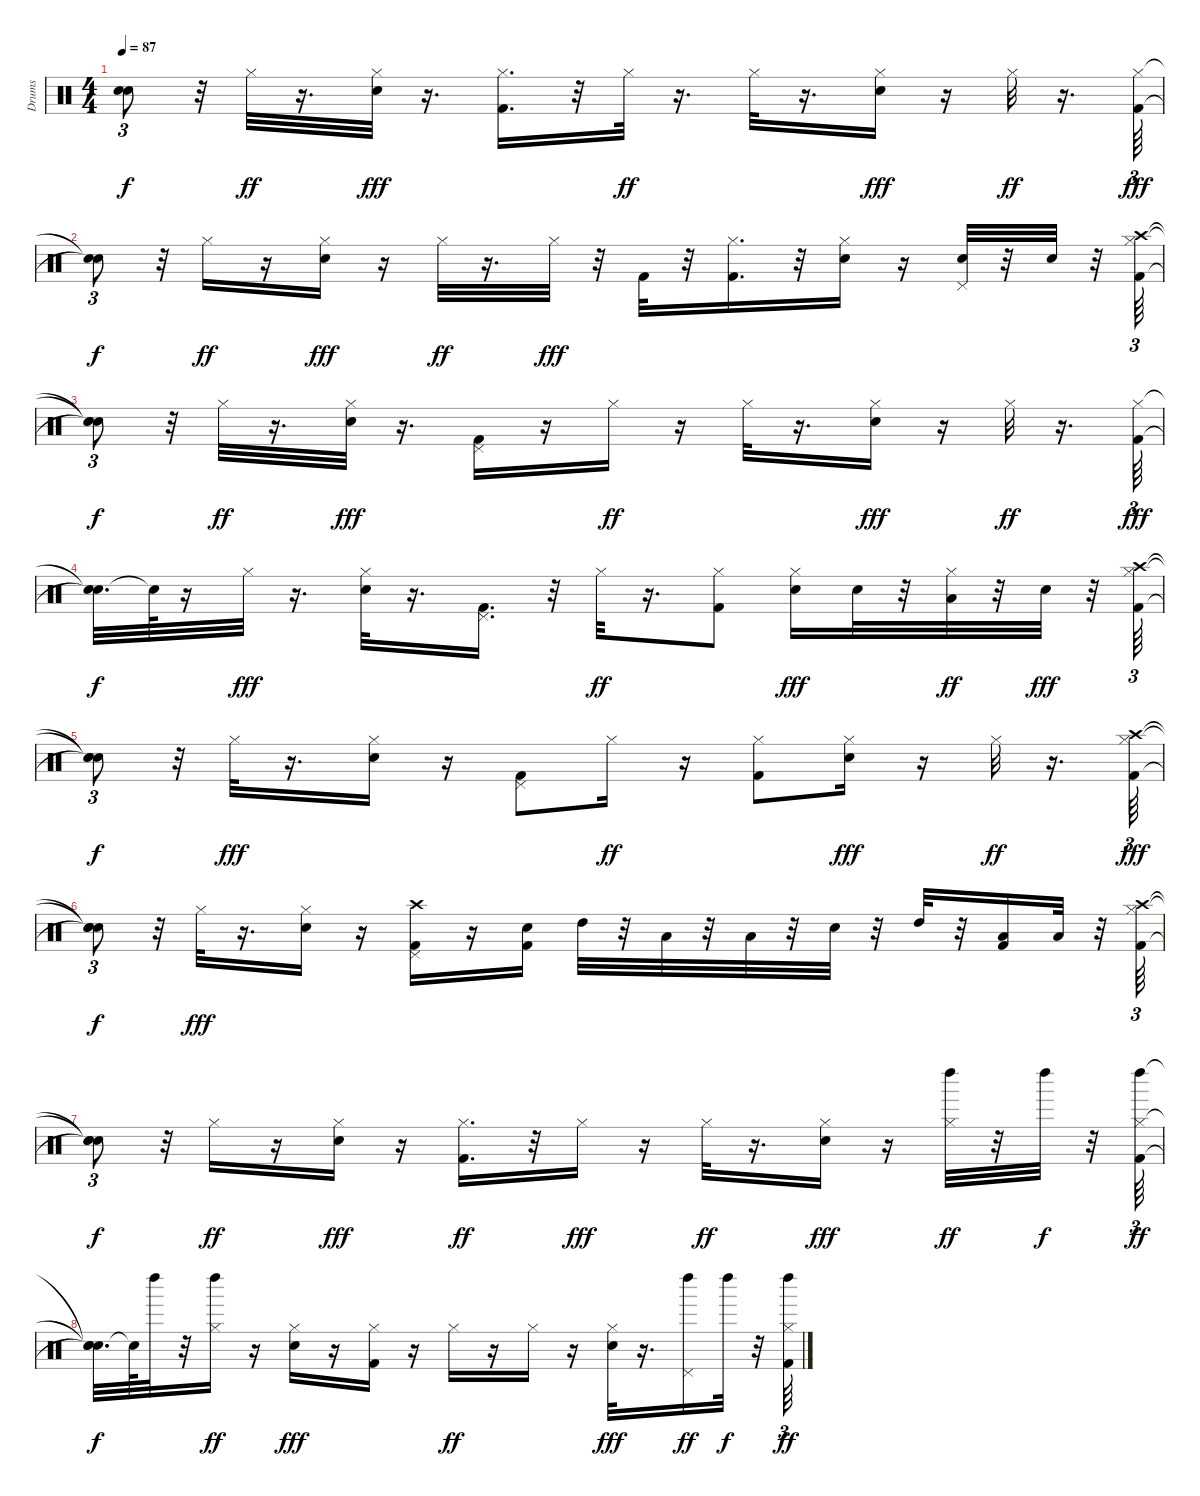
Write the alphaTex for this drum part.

\track ("Drums   " "Drums   ") {instrument percussion}
\staff {score}
\articulation defaults
\ts (4 4)
\tempo 87
\clef neutral
\ks c
("Snare (hit)"{t} "Snare (hit)"{t}).8{tu (3 2) dy f} r.32 "Hi-Hat (closed)".32{dy ff} r.16{d} ("Hi-Hat (closed)" "Snare (hit) 2").32{dy fff} r.16{d} ("Kick (hit) 2" "Hi-Hat (closed)").16{d} r.32 "Hi-Hat (closed)".32{dy ff} r.16{d} "Hi-Hat (closed)".32 r.16{d} ("Hi-Hat (closed)" "Snare (hit) 2").16{dy fff} r.16 "Hi-Hat (closed)".32{dy ff} r.16{d} ("Kick (hit) 2" "Hi-Hat (closed)").64{tu (3 2) dy fff} |
("Snare (hit)"{t} "Snare (hit)"{t}).8{tu (3 2) dy f} r.32 "Hi-Hat (closed)".16{dy ff} r.16 ("Hi-Hat (closed)" "Snare (hit) 2").16{dy fff} r.16 "Hi-Hat (closed)".32{dy ff} r.16{d} "Hi-Hat (closed)".32{dy fff} r.32 "Kick (hit) 2".32 r.32 ("Kick (hit) 2" "Hi-Hat (closed)").16{d} r.32 ("Hi-Hat (closed)" "Snare (hit) 2").16 r.16 ("Pedal Hi-Hat (hit)" "Snare (hit) 2").32 r.32 "Snare (hit) 2".32 r.32 ("Kick (hit) 2" "Hi-Hat (closed)" "Crash high (hit)").64{tu (3 2)} |
("Snare (hit)"{t} "Snare (hit)"{t} "Snare (hit)"{t}).8{tu (3 2) dy f} r.32 "Hi-Hat (closed)".32{dy ff} r.16{d} ("Hi-Hat (closed)" "Snare (hit) 2").32{dy fff} r.16{d} ("Kick (hit) 2" "Pedal Hi-Hat (hit)").16 r.16 "Hi-Hat (closed)".16{dy ff} r.16 "Hi-Hat (closed)".32 r.16{d} ("Hi-Hat (closed)" "Snare (hit) 2").16{dy fff} r.16 "Hi-Hat (closed)".32{dy ff} r.16{d} ("Kick (hit) 2" "Hi-Hat (closed)").64{tu (3 2) dy fff} |
("Snare (hit)"{t} "Snare (hit)"{t}).32{d dy f} "Snare (hit)"{t}.64 r.16 "Hi-Hat (closed)".32{dy fff} r.16{d} ("Hi-Hat (closed)" "Snare (hit) 2").32 r.16{d} ("Kick (hit) 2" "Pedal Hi-Hat (hit)").16{d} r.32 "Hi-Hat (closed)".32{dy ff} r.16{d} ("Kick (hit) 2" "Hi-Hat (closed)").8 ("Hi-Hat (closed)" "Snare (hit) 2").16{dy fff} "Snare (hit) 2".32 r.32 ("Low Floor Tom (hit)" "Hi-Hat (closed)").32{dy ff} r.32 "Snare (hit) 2".32{dy fff} r.32 ("Kick (hit) 2" "Hi-Hat (closed)" "Crash high (hit)").64{tu (3 2)} |
("Snare (hit)"{t} "Snare (hit)"{t} "Snare (hit)"{t}).8{tu (3 2) dy f} r.32 "Hi-Hat (closed)".32{dy fff} r.16{d} ("Hi-Hat (closed)" "Snare (hit) 2").16 r.16 ("Kick (hit) 2" "Pedal Hi-Hat (hit)").8 "Hi-Hat (closed)".16{dy ff} r.16 ("Kick (hit) 2" "Hi-Hat (closed)").8 ("Hi-Hat (closed)" "Snare (hit) 2").16{dy fff} r.16 "Hi-Hat (closed)".32{dy ff} r.16{d} ("Kick (hit) 2" "Hi-Hat (closed)" "Crash high (hit)").64{tu (3 2) dy fff} |
("Snare (hit)"{t} "Snare (hit)"{t} "Snare (hit)"{t}).8{tu (3 2) dy f} r.32 "Hi-Hat (closed)".32{dy fff} r.16{d} ("Hi-Hat (closed)" "Snare (hit) 2").16 r.16 ("Kick (hit) 2" "Pedal Hi-Hat (hit)" "Crash high (hit)").16 r.16 ("Kick (hit) 2" "Snare (hit) 2").16 "High Tom (hit)".32 r.32 "Low Tom (hit)".32 r.32 "Low Floor Tom (hit)".32 r.32 "Snare (hit) 2".32 r.32 "High Tom (hit)".32 r.32 ("Kick (hit) 2" "Low Tom (hit)").16 "Low Floor Tom (hit)".32 r.32 ("Kick (hit) 2" "Hi-Hat (closed)" "Crash high (hit)").64{tu (3 2)} |
("Snare (hit)"{t} "Snare (hit)"{t} "Snare (hit)"{t}).8{tu (3 2) dy f} r.32 "Hi-Hat (closed)".16{dy ff} r.16 ("Hi-Hat (closed)" "Snare (hit) 2").16{dy fff} r.16 ("Kick (hit) 2" "Hi-Hat (closed)").16{d dy ff} r.32 "Hi-Hat (closed)".16{dy fff} r.16 "Hi-Hat (closed)".32{dy ff} r.16{d} ("Hi-Hat (closed)" "Snare (hit) 2").16{dy fff} r.16 ("Hi-Hat (closed)" "Left Maraca (hit)").32{dy ff} r.32 "Left Maraca (hit)".32{dy f} r.32 ("Kick (hit) 2" "Hi-Hat (closed)" "Left Maraca (hit)").64{tu (3 2) dy ff} |
("Snare (hit)"{t} "Snare (hit)"{t} "Snare (hit)"{t}).32{d dy f} "Snare (hit)"{t}.64 "Left Maraca (hit)".32 r.32 ("Hi-Hat (closed)" "Left Maraca (hit)").16{dy ff} r.16 ("Hi-Hat (closed)" "Snare (hit) 2").16{dy fff} r.16 ("Kick (hit) 2" "Hi-Hat (closed)").16 r.16 "Hi-Hat (closed)".16{dy ff} r.16 "Hi-Hat (closed)".16 r.16 ("Hi-Hat (closed)" "Snare (hit) 2").32{dy fff} r.16{d} ("Pedal Hi-Hat (hit)" "Left Maraca (hit)").16{dy ff} "Left Maraca (hit)".32{dy f} r.32 ("Kick (hit) 2" "Hi-Hat (closed)" "Left Maraca (hit)").64{tu (3 2) dy ff}
